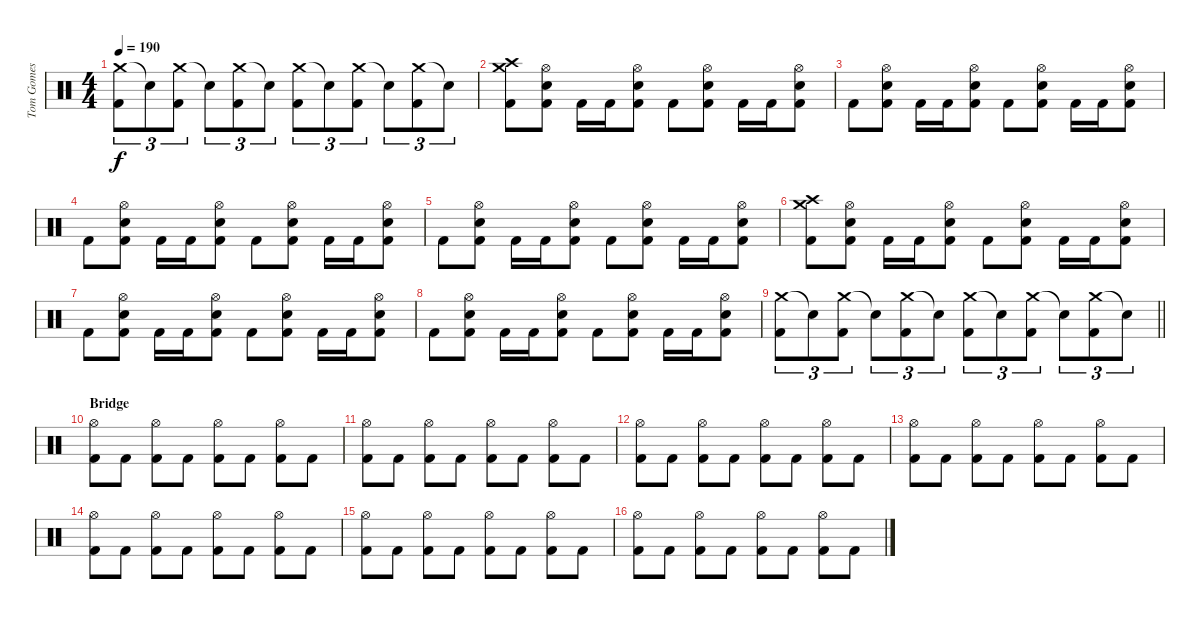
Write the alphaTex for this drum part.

\track ("Tom Gomes" "Tom Gomes") {instrument percussion}
\staff {score}
\articulation defaults
\ts (4 4)
\tempo 190
\clef neutral
\ks c
("Crash medium (hit)" "Kick (hit) 2").8{tu (3 2) dy f} "Snare (hit)"{t}.8{tu (3 2)} ("Crash medium (hit)" "Kick (hit) 2").8{tu (3 2)} "Snare (hit)"{t}.8{tu (3 2)} ("Crash medium (hit)" "Kick (hit) 2").8{tu (3 2)} "Snare (hit)"{t}.8{tu (3 2)} ("Crash medium (hit)" "Kick (hit) 2").8{tu (3 2)} "Snare (hit)"{t}.8{tu (3 2)} ("Crash medium (hit)" "Kick (hit) 2").8{tu (3 2)} "Snare (hit)"{t}.8{tu (3 2)} ("Crash medium (hit)" "Kick (hit) 2").8{tu (3 2)} "Snare (hit)"{t}.8{tu (3 2)} |
("Crash high (hit)" "Crash medium (hit)" "Kick (hit) 2").8 ("Hi-Hat (open)" "Snare (hit) 2" "Kick (hit) 2").8 "Kick (hit) 2".16 "Kick (hit) 2".16 ("Hi-Hat (open)" "Snare (hit) 2" "Kick (hit) 2").8 "Kick (hit) 2".8 ("Hi-Hat (open)" "Snare (hit) 2" "Kick (hit) 2").8 "Kick (hit) 2".16 "Kick (hit) 2".16 ("Hi-Hat (open)" "Snare (hit) 2" "Kick (hit) 2").8 |
"Kick (hit) 2".8 ("Hi-Hat (open)" "Snare (hit) 2" "Kick (hit) 2").8 "Kick (hit) 2".16 "Kick (hit) 2".16 ("Hi-Hat (open)" "Snare (hit) 2" "Kick (hit) 2").8 "Kick (hit) 2".8 ("Hi-Hat (open)" "Snare (hit) 2" "Kick (hit) 2").8 "Kick (hit) 2".16 "Kick (hit) 2".16 ("Hi-Hat (open)" "Snare (hit) 2" "Kick (hit) 2").8 |
"Kick (hit) 2".8 ("Hi-Hat (open)" "Snare (hit) 2" "Kick (hit) 2").8 "Kick (hit) 2".16 "Kick (hit) 2".16 ("Hi-Hat (open)" "Snare (hit) 2" "Kick (hit) 2").8 "Kick (hit) 2".8 ("Hi-Hat (open)" "Snare (hit) 2" "Kick (hit) 2").8 "Kick (hit) 2".16 "Kick (hit) 2".16 ("Hi-Hat (open)" "Snare (hit) 2" "Kick (hit) 2").8 |
"Kick (hit) 2".8 ("Hi-Hat (open)" "Snare (hit) 2" "Kick (hit) 2").8 "Kick (hit) 2".16 "Kick (hit) 2".16 ("Hi-Hat (open)" "Snare (hit) 2" "Kick (hit) 2").8 "Kick (hit) 2".8 ("Hi-Hat (open)" "Snare (hit) 2" "Kick (hit) 2").8 "Kick (hit) 2".16 "Kick (hit) 2".16 ("Hi-Hat (open)" "Snare (hit) 2" "Kick (hit) 2").8 |
("Crash high (hit)" "Crash medium (hit)" "Kick (hit) 2").8 ("Hi-Hat (open)" "Snare (hit) 2" "Kick (hit) 2").8 "Kick (hit) 2".16 "Kick (hit) 2".16 ("Hi-Hat (open)" "Snare (hit) 2" "Kick (hit) 2").8 "Kick (hit) 2".8 ("Hi-Hat (open)" "Snare (hit) 2" "Kick (hit) 2").8 "Kick (hit) 2".16 "Kick (hit) 2".16 ("Hi-Hat (open)" "Snare (hit) 2" "Kick (hit) 2").8 |
"Kick (hit) 2".8 ("Hi-Hat (open)" "Snare (hit) 2" "Kick (hit) 2").8 "Kick (hit) 2".16 "Kick (hit) 2".16 ("Hi-Hat (open)" "Snare (hit) 2" "Kick (hit) 2").8 "Kick (hit) 2".8 ("Hi-Hat (open)" "Snare (hit) 2" "Kick (hit) 2").8 "Kick (hit) 2".16 "Kick (hit) 2".16 ("Hi-Hat (open)" "Snare (hit) 2" "Kick (hit) 2").8 |
"Kick (hit) 2".8 ("Hi-Hat (open)" "Snare (hit) 2" "Kick (hit) 2").8 "Kick (hit) 2".16 "Kick (hit) 2".16 ("Hi-Hat (open)" "Snare (hit) 2" "Kick (hit) 2").8 "Kick (hit) 2".8 ("Hi-Hat (open)" "Snare (hit) 2" "Kick (hit) 2").8 "Kick (hit) 2".16 "Kick (hit) 2".16 ("Hi-Hat (open)" "Snare (hit) 2" "Kick (hit) 2").8 |
\barLineRight lightlight
("Crash medium (hit)" "Kick (hit) 2").8{tu (3 2)} "Snare (hit)"{t}.8{tu (3 2)} ("Crash medium (hit)" "Kick (hit) 2").8{tu (3 2)} "Snare (hit)"{t}.8{tu (3 2)} ("Crash medium (hit)" "Kick (hit) 2").8{tu (3 2)} "Snare (hit)"{t}.8{tu (3 2)} ("Crash medium (hit)" "Kick (hit) 2").8{tu (3 2)} "Snare (hit)"{t}.8{tu (3 2)} ("Crash medium (hit)" "Kick (hit) 2").8{tu (3 2)} "Snare (hit)"{t}.8{tu (3 2)} ("Crash medium (hit)" "Kick (hit) 2").8{tu (3 2)} "Snare (hit)"{t}.8{tu (3 2)} |
\section ("" "Bridge")
("Hi-Hat (open)" "Kick (hit) 2").8 "Kick (hit) 2".8 ("Hi-Hat (open)" "Kick (hit) 2").8 "Kick (hit) 2".8 ("Hi-Hat (open)" "Kick (hit) 2").8 "Kick (hit) 2".8 ("Hi-Hat (open)" "Kick (hit) 2").8 "Kick (hit) 2".8 |
("Hi-Hat (open)" "Kick (hit) 2").8 "Kick (hit) 2".8 ("Hi-Hat (open)" "Kick (hit) 2").8 "Kick (hit) 2".8 ("Hi-Hat (open)" "Kick (hit) 2").8 "Kick (hit) 2".8 ("Hi-Hat (open)" "Kick (hit) 2").8 "Kick (hit) 2".8 |
("Hi-Hat (open)" "Kick (hit) 2").8 "Kick (hit) 2".8 ("Hi-Hat (open)" "Kick (hit) 2").8 "Kick (hit) 2".8 ("Hi-Hat (open)" "Kick (hit) 2").8 "Kick (hit) 2".8 ("Hi-Hat (open)" "Kick (hit) 2").8 "Kick (hit) 2".8 |
("Hi-Hat (open)" "Kick (hit) 2").8 "Kick (hit) 2".8 ("Hi-Hat (open)" "Kick (hit) 2").8 "Kick (hit) 2".8 ("Hi-Hat (open)" "Kick (hit) 2").8 "Kick (hit) 2".8 ("Hi-Hat (open)" "Kick (hit) 2").8 "Kick (hit) 2".8 |
("Hi-Hat (open)" "Kick (hit) 2").8 "Kick (hit) 2".8 ("Hi-Hat (open)" "Kick (hit) 2").8 "Kick (hit) 2".8 ("Hi-Hat (open)" "Kick (hit) 2").8 "Kick (hit) 2".8 ("Hi-Hat (open)" "Kick (hit) 2").8 "Kick (hit) 2".8 |
("Hi-Hat (open)" "Kick (hit) 2").8 "Kick (hit) 2".8 ("Hi-Hat (open)" "Kick (hit) 2").8 "Kick (hit) 2".8 ("Hi-Hat (open)" "Kick (hit) 2").8 "Kick (hit) 2".8 ("Hi-Hat (open)" "Kick (hit) 2").8 "Kick (hit) 2".8 |
("Hi-Hat (open)" "Kick (hit) 2").8 "Kick (hit) 2".8 ("Hi-Hat (open)" "Kick (hit) 2").8 "Kick (hit) 2".8 ("Hi-Hat (open)" "Kick (hit) 2").8 "Kick (hit) 2".8 ("Hi-Hat (open)" "Kick (hit) 2").8 "Kick (hit) 2".8
